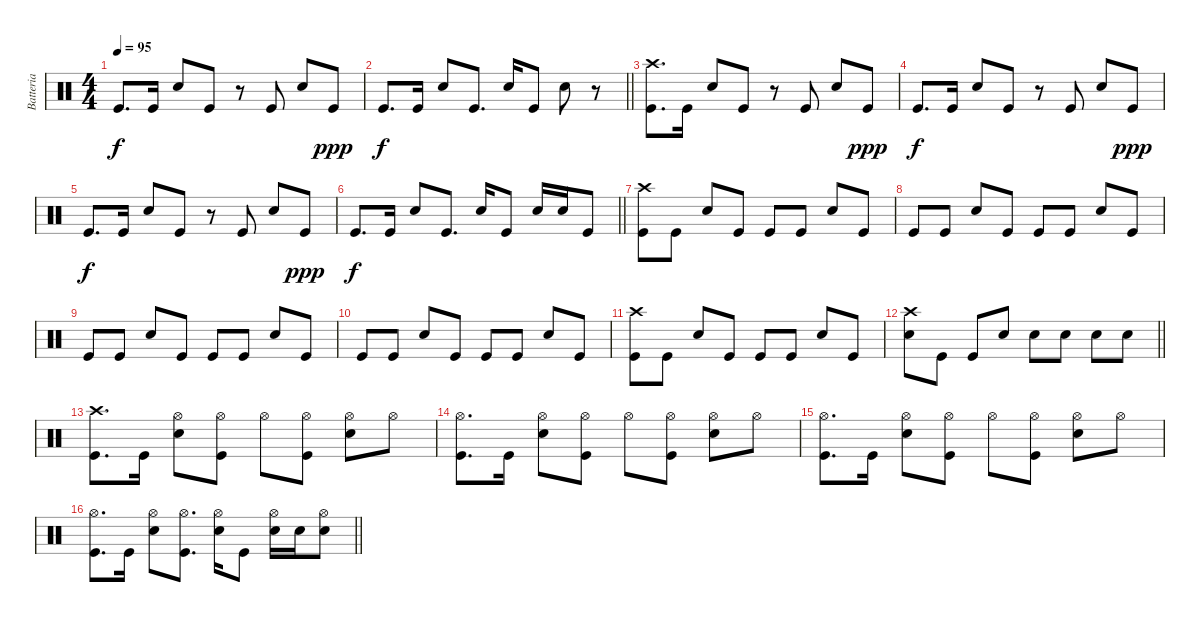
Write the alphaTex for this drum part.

\track ("Batteria" "Batteria") {instrument percussion}
\staff {score}
\articulation defaults
\ts (4 4)
\tempo 95
\clef neutral
\ks c "Kick (hit)".8{d dy f} "Kick (hit)".16 "Snare (hit) 2".8 "Kick (hit)".8
r.8 "Kick (hit)".8 "Snare (hit) 2".8 "Kick (hit)".8{dy ppp} |
\barLineRight lightlight "Kick (hit)".8{d dy f} "Kick (hit)".16 "Snare (hit) 2".8 "Kick (hit)".8{d} "Snare (hit) 2".16 "Kick (hit)".8 "Snare (hit) 2".8
r.8 |
("Kick (hit)" "Crash high (hit)").8{d} "Kick (hit)".16 "Snare (hit) 2".8 "Kick (hit)".8 r.8 "Kick (hit)".8 "Snare (hit) 2".8 "Kick (hit)".8{dy ppp} |
"Kick (hit)".8{d dy f} "Kick (hit)".16 "Snare (hit) 2".8 "Kick (hit)".8 r.8 "Kick (hit)".8 "Snare (hit) 2".8 "Kick (hit)".8{dy ppp} |
"Kick (hit)".8{d dy f} "Kick (hit)".16 "Snare (hit) 2".8 "Kick (hit)".8 r.8 "Kick (hit)".8 "Snare (hit) 2".8 "Kick (hit)".8{dy ppp} |
\barLineRight lightlight "Kick (hit)".8{d dy f} "Kick (hit)".16 "Snare (hit) 2".8 "Kick (hit)".8{d} "Snare (hit) 2".16 "Kick (hit)".8 "Snare (hit) 2".16 "Snare (hit) 2".16 "Kick (hit)".8
|
("Kick (hit)" "Crash high (hit)").8 "Kick (hit)".8 "Snare (hit) 2".8 "Kick (hit)".8 "Kick (hit)".8 "Kick (hit)".8 "Snare (hit) 2".8 "Kick (hit)".8 |
"Kick (hit)".8 "Kick (hit)".8 "Snare (hit) 2".8 "Kick (hit)".8 "Kick (hit)".8 "Kick (hit)".8 "Snare (hit) 2".8 "Kick (hit)".8 |
"Kick (hit)".8 "Kick (hit)".8 "Snare (hit) 2".8 "Kick (hit)".8 "Kick (hit)".8 "Kick (hit)".8 "Snare (hit) 2".8 "Kick (hit)".8 |
"Kick (hit)".8 "Kick (hit)".8 "Snare (hit) 2".8 "Kick (hit)".8 "Kick (hit)".8 "Kick (hit)".8 "Snare (hit) 2".8 "Kick (hit)".8 |
("Kick (hit)" "Crash high (hit)").8 "Kick (hit)".8 "Snare (hit) 2".8 "Kick (hit)".8 "Kick (hit)".8 "Kick (hit)".8 "Snare (hit) 2".8 "Kick (hit)".8 |
\barLineRight lightlight
("Snare (hit) 2" "Crash high (hit)").8 "Kick (hit)".8 "Kick (hit)".8 "Snare (hit) 2".8 "Snare (hit) 2".8 "Snare (hit) 2".8 "Snare (hit) 2".8 "Snare (hit) 2".8 |
("Kick (hit)" "Crash high (hit)").8{d} "Kick (hit)".16 ("Snare (hit) 2" "Hi-Hat (open)").8 ("Kick (hit)" "Hi-Hat (open)").8 "Hi-Hat (open)".8 ("Kick (hit)" "Hi-Hat (open)").8 ("Snare (hit) 2" "Hi-Hat (open)").8 "Hi-Hat (open)".8 |
("Kick (hit)" "Hi-Hat (open)").8{d} "Kick (hit)".16 ("Snare (hit) 2" "Hi-Hat (open)").8 ("Kick (hit)" "Hi-Hat (open)").8 "Hi-Hat (open)".8 ("Kick (hit)" "Hi-Hat (open)").8 ("Snare (hit) 2" "Hi-Hat (open)").8 "Hi-Hat (open)".8 |
("Kick (hit)" "Hi-Hat (open)").8{d} "Kick (hit)".16 ("Snare (hit) 2" "Hi-Hat (open)").8 ("Kick (hit)" "Hi-Hat (open)").8 "Hi-Hat (open)".8 ("Kick (hit)" "Hi-Hat (open)").8 ("Snare (hit) 2" "Hi-Hat (open)").8 "Hi-Hat (open)".8 |
\barLineRight lightlight
("Kick (hit)" "Hi-Hat (open)").8{d} "Kick (hit)".16 ("Snare (hit) 2" "Hi-Hat (open)").8 ("Kick (hit)" "Hi-Hat (open)").8{d} ("Snare (hit) 2" "Hi-Hat (open)").16 "Kick (hit)".8 ("Snare (hit) 2" "Hi-Hat (open)").16 "Snare (hit) 2".16 ("Snare (hit) 2" "Hi-Hat (open)").8
